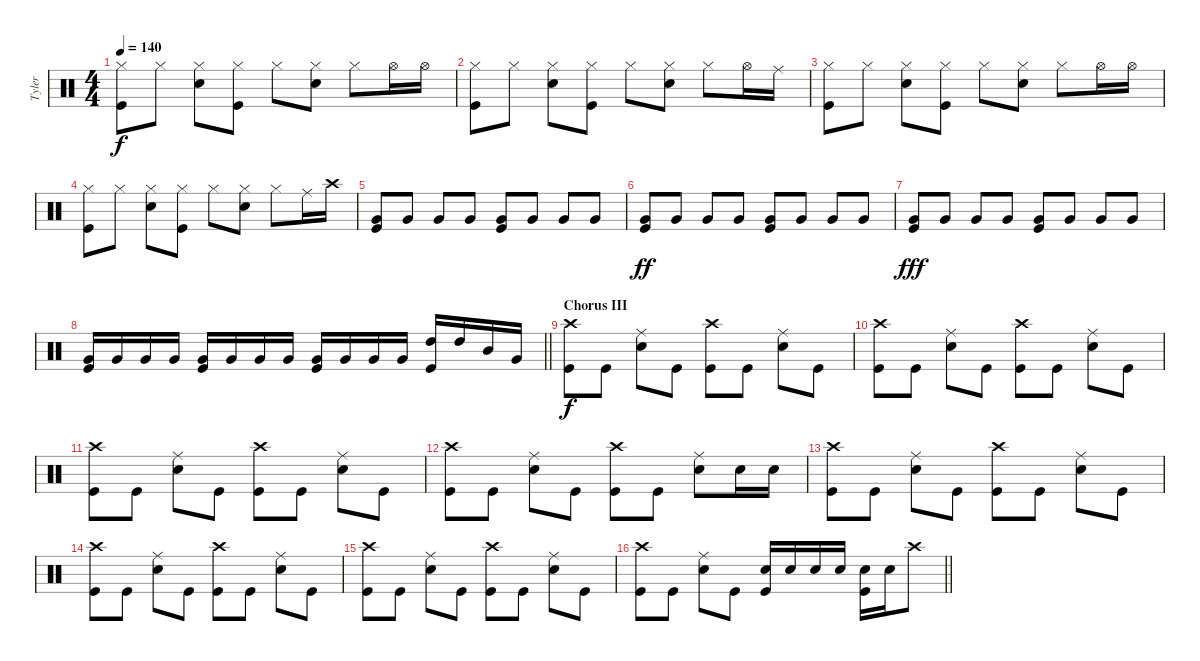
\track ("Tyler" "Tyler") {instrument percussion}
\staff {score}
\articulation defaults
\ts (4 4)
\tempo 140
\clef neutral
\ks c
("Kick (hit)" "Hi-Hat (closed)").8{dy f} "Hi-Hat (closed)".8 ("Snare (hit) 2" "Hi-Hat (closed)").8 ("Kick (hit)" "Hi-Hat (closed)").8 "Hi-Hat (closed)".8 ("Snare (hit) 2" "Hi-Hat (closed)").8 "Hi-Hat (closed)".8 "Hi-Hat (open)".16 "Hi-Hat (open)".16 |
("Kick (hit)" "Hi-Hat (closed)").8 "Hi-Hat (closed)".8 ("Snare (hit) 2" "Hi-Hat (closed)").8 ("Kick (hit)" "Hi-Hat (closed)").8 "Hi-Hat (closed)".8 ("Snare (hit) 2" "Hi-Hat (closed)").8 "Hi-Hat (closed)".8 "Hi-Hat (open)".16 "Ride (middle)".16 |
("Kick (hit)" "Hi-Hat (closed)").8 "Hi-Hat (closed)".8 ("Snare (hit) 2" "Hi-Hat (closed)").8 ("Kick (hit)" "Hi-Hat (closed)").8 "Hi-Hat (closed)".8 ("Snare (hit) 2" "Hi-Hat (closed)").8 "Hi-Hat (closed)".8 "Hi-Hat (open)".16 "Hi-Hat (open)".16 |
("Kick (hit)" "Hi-Hat (closed)").8 "Hi-Hat (closed)".8 ("Snare (hit) 2" "Hi-Hat (closed)").8 ("Kick (hit)" "Hi-Hat (closed)").8 "Hi-Hat (closed)".8 ("Snare (hit) 2" "Hi-Hat (closed)").8 "Hi-Hat (closed)".8 "Ride (middle)".16 "Crash high (hit)".16 |
("Kick (hit)" "Very Low Tom (hit)").8 "Very Low Tom (hit)".8 "Very Low Tom (hit)".8 "Very Low Tom (hit)".8 ("Kick (hit)" "Very Low Tom (hit)").8 "Very Low Tom (hit)".8 "Very Low Tom (hit)".8 "Very Low Tom (hit)".8 |
("Kick (hit)" "Very Low Tom (hit)").8{dy ff} "Very Low Tom (hit)".8 "Very Low Tom (hit)".8 "Very Low Tom (hit)".8 ("Kick (hit)" "Very Low Tom (hit)").8 "Very Low Tom (hit)".8 "Very Low Tom (hit)".8 "Very Low Tom (hit)".8 |
("Kick (hit)" "Very Low Tom (hit)").8{dy fff} "Very Low Tom (hit)".8 "Very Low Tom (hit)".8 "Very Low Tom (hit)".8 ("Kick (hit)" "Very Low Tom (hit)").8 "Very Low Tom (hit)".8 "Very Low Tom (hit)".8 "Very Low Tom (hit)".8 |
\barLineRight lightlight
("Kick (hit)" "Very Low Tom (hit)").16 "Very Low Tom (hit)".16 "Very Low Tom (hit)".16 "Very Low Tom (hit)".16 ("Kick (hit)" "Very Low Tom (hit)").16 "Very Low Tom (hit)".16 "Very Low Tom (hit)".16 "Very Low Tom (hit)".16 ("Kick (hit)" "Very Low Tom (hit)").16 "Very Low Tom (hit)".16 "Very Low Tom (hit)".16 "Very Low Tom (hit)".16 ("Kick (hit)" "High Tom (hit)").16 "High Tom (hit)".16 "Mid Tom (hit)".16 "Very Low Tom (hit)".16 |
\section ("" "Chorus III")
("Crash high (hit)" "Kick (hit)").8{dy f} "Kick (hit)".8 ("Ride (middle)" "Snare (hit) 2").8 "Kick (hit)".8 ("Crash high (hit)" "Kick (hit)").8 "Kick (hit)".8 ("Ride (middle)" "Snare (hit) 2").8 "Kick (hit)".8 |
("Crash high (hit)" "Kick (hit)").8 "Kick (hit)".8 ("Ride (middle)" "Snare (hit) 2").8 "Kick (hit)".8 ("Crash high (hit)" "Kick (hit)").8 "Kick (hit)".8 ("Ride (middle)" "Snare (hit) 2").8 "Kick (hit)".8 |
("Crash high (hit)" "Kick (hit)").8 "Kick (hit)".8 ("Ride (middle)" "Snare (hit) 2").8 "Kick (hit)".8 ("Crash high (hit)" "Kick (hit)").8 "Kick (hit)".8 ("Ride (middle)" "Snare (hit) 2").8 "Kick (hit)".8 |
("Crash high (hit)" "Kick (hit)").8 "Kick (hit)".8 ("Ride (middle)" "Snare (hit) 2").8 "Kick (hit)".8 ("Crash high (hit)" "Kick (hit)").8 "Kick (hit)".8 ("Ride (middle)" "Snare (hit) 2").8 "Snare (hit) 2".16 "Snare (hit) 2".16 |
("Crash high (hit)" "Kick (hit)").8 "Kick (hit)".8 ("Ride (middle)" "Snare (hit) 2").8 "Kick (hit)".8 ("Crash high (hit)" "Kick (hit)").8 "Kick (hit)".8 ("Ride (middle)" "Snare (hit) 2").8 "Kick (hit)".8 |
("Crash high (hit)" "Kick (hit)").8 "Kick (hit)".8 ("Ride (middle)" "Snare (hit) 2").8 "Kick (hit)".8 ("Crash high (hit)" "Kick (hit)").8 "Kick (hit)".8 ("Ride (middle)" "Snare (hit) 2").8 "Kick (hit)".8 |
("Crash high (hit)" "Kick (hit)").8 "Kick (hit)".8 ("Ride (middle)" "Snare (hit) 2").8 "Kick (hit)".8 ("Crash high (hit)" "Kick (hit)").8 "Kick (hit)".8 ("Ride (middle)" "Snare (hit) 2").8 "Kick (hit)".8 |
\barLineRight lightlight
("Crash high (hit)" "Kick (hit)").8 "Kick (hit)".8 ("Ride (middle)" "Snare (hit) 2").8 "Kick (hit)".8 ("Kick (hit)" "Snare (hit) 2").16 "Snare (hit) 2".16 "Snare (hit) 2".16 "Snare (hit) 2".16 ("Kick (hit)" "Snare (hit) 2").16 "Snare (hit) 2".16 "Crash high (hit)".8
